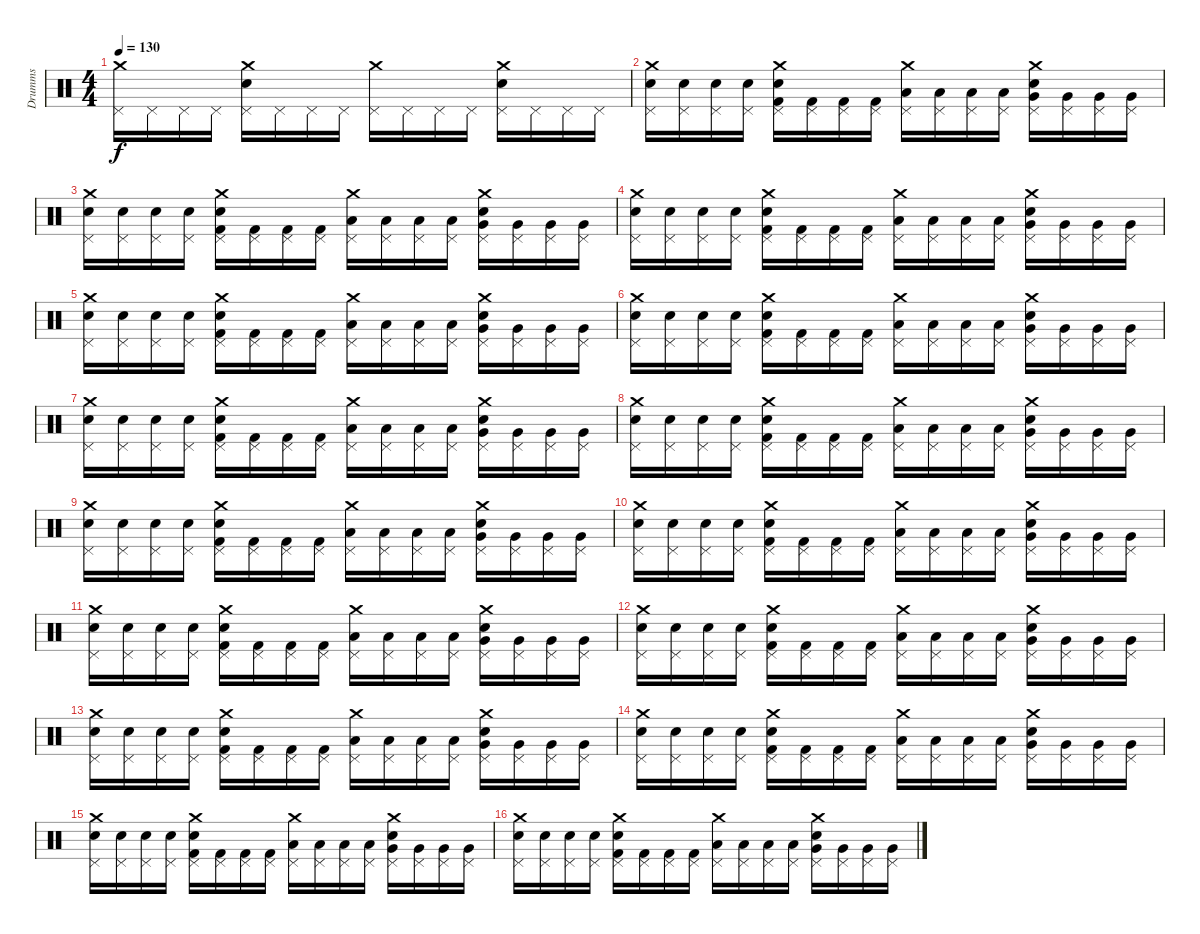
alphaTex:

\track ("Drumms" "Drumms") {instrument percussion}
\staff {score}
\articulation defaults
\ts (4 4)
\tempo 130
\clef neutral
\ks c
("Crash medium (hit)" "Pedal Hi-Hat (hit)").16{dy f} "Pedal Hi-Hat (hit)".16 "Pedal Hi-Hat (hit)".16 "Pedal Hi-Hat (hit)".16 ("Crash medium (hit)" "Electric Snare (hit)" "Pedal Hi-Hat (hit)").16 "Pedal Hi-Hat (hit)".16 "Pedal Hi-Hat (hit)".16 "Pedal Hi-Hat (hit)".16 ("Crash medium (hit)" "Pedal Hi-Hat (hit)").16 "Pedal Hi-Hat (hit)".16 "Pedal Hi-Hat (hit)".16 "Pedal Hi-Hat (hit)".16 ("Crash medium (hit)" "Electric Snare (hit)" "Pedal Hi-Hat (hit)").16 "Pedal Hi-Hat (hit)".16 "Pedal Hi-Hat (hit)".16 "Pedal Hi-Hat (hit)".16 |
("Crash medium (hit)" "Snare (hit) 2" "Pedal Hi-Hat (hit)").16{balance 0} ("Snare (hit) 2" "Pedal Hi-Hat (hit)").16 ("Snare (hit) 2" "Pedal Hi-Hat (hit)").16{balance 2} ("Snare (hit) 2" "Pedal Hi-Hat (hit)").16 ("Crash medium (hit)" "Electric Snare (hit)" "Kick (hit) 2" "Pedal Hi-Hat (hit)").16{balance 4} ("Kick (hit) 2" "Pedal Hi-Hat (hit)").16 ("Kick (hit) 2" "Pedal Hi-Hat (hit)").16{balance 6} ("Kick (hit) 2" "Pedal Hi-Hat (hit)").16 ("Crash medium (hit)" "Low Floor Tom (hit)" "Pedal Hi-Hat (hit)").16{balance 8} ("Low Floor Tom (hit)" "Pedal Hi-Hat (hit)").16 ("Low Floor Tom (hit)" "Pedal Hi-Hat (hit)").16{balance 10} ("Low Floor Tom (hit)" "Pedal Hi-Hat (hit)").16 ("Crash medium (hit)" "Electric Snare (hit)" "Very Low Tom (hit)" "Pedal Hi-Hat (hit)").16{balance 12} ("Very Low Tom (hit)" "Pedal Hi-Hat (hit)").16 ("Very Low Tom (hit)" "Pedal Hi-Hat (hit)").16{balance 14} ("Very Low Tom (hit)" "Pedal Hi-Hat (hit)").16 |
("Crash medium (hit)" "Snare (hit) 2" "Pedal Hi-Hat (hit)").16{balance 0} ("Snare (hit) 2" "Pedal Hi-Hat (hit)").16 ("Snare (hit) 2" "Pedal Hi-Hat (hit)").16{balance 2} ("Snare (hit) 2" "Pedal Hi-Hat (hit)").16 ("Crash medium (hit)" "Electric Snare (hit)" "Kick (hit) 2" "Pedal Hi-Hat (hit)").16{balance 4} ("Kick (hit) 2" "Pedal Hi-Hat (hit)").16 ("Kick (hit) 2" "Pedal Hi-Hat (hit)").16{balance 6} ("Kick (hit) 2" "Pedal Hi-Hat (hit)").16 ("Crash medium (hit)" "Low Floor Tom (hit)" "Pedal Hi-Hat (hit)").16{balance 8} ("Low Floor Tom (hit)" "Pedal Hi-Hat (hit)").16 ("Low Floor Tom (hit)" "Pedal Hi-Hat (hit)").16{balance 10} ("Low Floor Tom (hit)" "Pedal Hi-Hat (hit)").16 ("Crash medium (hit)" "Electric Snare (hit)" "Very Low Tom (hit)" "Pedal Hi-Hat (hit)").16{balance 12} ("Very Low Tom (hit)" "Pedal Hi-Hat (hit)").16 ("Very Low Tom (hit)" "Pedal Hi-Hat (hit)").16{balance 14} ("Very Low Tom (hit)" "Pedal Hi-Hat (hit)").16 |
("Crash medium (hit)" "Snare (hit) 2" "Pedal Hi-Hat (hit)").16{balance 0} ("Snare (hit) 2" "Pedal Hi-Hat (hit)").16 ("Snare (hit) 2" "Pedal Hi-Hat (hit)").16{balance 2} ("Snare (hit) 2" "Pedal Hi-Hat (hit)").16 ("Crash medium (hit)" "Electric Snare (hit)" "Kick (hit) 2" "Pedal Hi-Hat (hit)").16{balance 4} ("Kick (hit) 2" "Pedal Hi-Hat (hit)").16 ("Kick (hit) 2" "Pedal Hi-Hat (hit)").16{balance 6} ("Kick (hit) 2" "Pedal Hi-Hat (hit)").16 ("Crash medium (hit)" "Low Floor Tom (hit)" "Pedal Hi-Hat (hit)").16{balance 8} ("Low Floor Tom (hit)" "Pedal Hi-Hat (hit)").16 ("Low Floor Tom (hit)" "Pedal Hi-Hat (hit)").16{balance 10} ("Low Floor Tom (hit)" "Pedal Hi-Hat (hit)").16 ("Crash medium (hit)" "Electric Snare (hit)" "Very Low Tom (hit)" "Pedal Hi-Hat (hit)").16{balance 12} ("Very Low Tom (hit)" "Pedal Hi-Hat (hit)").16 ("Very Low Tom (hit)" "Pedal Hi-Hat (hit)").16{balance 14} ("Very Low Tom (hit)" "Pedal Hi-Hat (hit)").16 |
("Crash medium (hit)" "Snare (hit) 2" "Pedal Hi-Hat (hit)").16{balance 0} ("Snare (hit) 2" "Pedal Hi-Hat (hit)").16 ("Snare (hit) 2" "Pedal Hi-Hat (hit)").16{balance 2} ("Snare (hit) 2" "Pedal Hi-Hat (hit)").16 ("Crash medium (hit)" "Electric Snare (hit)" "Kick (hit) 2" "Pedal Hi-Hat (hit)").16{balance 4} ("Kick (hit) 2" "Pedal Hi-Hat (hit)").16 ("Kick (hit) 2" "Pedal Hi-Hat (hit)").16{balance 6} ("Kick (hit) 2" "Pedal Hi-Hat (hit)").16 ("Crash medium (hit)" "Low Floor Tom (hit)" "Pedal Hi-Hat (hit)").16{balance 8} ("Low Floor Tom (hit)" "Pedal Hi-Hat (hit)").16 ("Low Floor Tom (hit)" "Pedal Hi-Hat (hit)").16{balance 10} ("Low Floor Tom (hit)" "Pedal Hi-Hat (hit)").16 ("Crash medium (hit)" "Electric Snare (hit)" "Very Low Tom (hit)" "Pedal Hi-Hat (hit)").16{balance 12} ("Very Low Tom (hit)" "Pedal Hi-Hat (hit)").16 ("Very Low Tom (hit)" "Pedal Hi-Hat (hit)").16{balance 14} ("Very Low Tom (hit)" "Pedal Hi-Hat (hit)").16 |
("Crash medium (hit)" "Snare (hit) 2" "Pedal Hi-Hat (hit)").16{balance 0} ("Snare (hit) 2" "Pedal Hi-Hat (hit)").16 ("Snare (hit) 2" "Pedal Hi-Hat (hit)").16{balance 2} ("Snare (hit) 2" "Pedal Hi-Hat (hit)").16 ("Crash medium (hit)" "Electric Snare (hit)" "Kick (hit) 2" "Pedal Hi-Hat (hit)").16{balance 4} ("Kick (hit) 2" "Pedal Hi-Hat (hit)").16 ("Kick (hit) 2" "Pedal Hi-Hat (hit)").16{balance 6} ("Kick (hit) 2" "Pedal Hi-Hat (hit)").16 ("Crash medium (hit)" "Low Floor Tom (hit)" "Pedal Hi-Hat (hit)").16{balance 8} ("Low Floor Tom (hit)" "Pedal Hi-Hat (hit)").16 ("Low Floor Tom (hit)" "Pedal Hi-Hat (hit)").16{balance 10} ("Low Floor Tom (hit)" "Pedal Hi-Hat (hit)").16 ("Crash medium (hit)" "Electric Snare (hit)" "Very Low Tom (hit)" "Pedal Hi-Hat (hit)").16{balance 12} ("Very Low Tom (hit)" "Pedal Hi-Hat (hit)").16 ("Very Low Tom (hit)" "Pedal Hi-Hat (hit)").16{balance 14} ("Very Low Tom (hit)" "Pedal Hi-Hat (hit)").16 |
("Crash medium (hit)" "Snare (hit) 2" "Pedal Hi-Hat (hit)").16{balance 0} ("Snare (hit) 2" "Pedal Hi-Hat (hit)").16 ("Snare (hit) 2" "Pedal Hi-Hat (hit)").16{balance 2} ("Snare (hit) 2" "Pedal Hi-Hat (hit)").16 ("Crash medium (hit)" "Electric Snare (hit)" "Kick (hit) 2" "Pedal Hi-Hat (hit)").16{balance 4} ("Kick (hit) 2" "Pedal Hi-Hat (hit)").16 ("Kick (hit) 2" "Pedal Hi-Hat (hit)").16{balance 6} ("Kick (hit) 2" "Pedal Hi-Hat (hit)").16 ("Crash medium (hit)" "Low Floor Tom (hit)" "Pedal Hi-Hat (hit)").16{balance 8} ("Low Floor Tom (hit)" "Pedal Hi-Hat (hit)").16 ("Low Floor Tom (hit)" "Pedal Hi-Hat (hit)").16{balance 10} ("Low Floor Tom (hit)" "Pedal Hi-Hat (hit)").16 ("Crash medium (hit)" "Electric Snare (hit)" "Very Low Tom (hit)" "Pedal Hi-Hat (hit)").16{balance 12} ("Very Low Tom (hit)" "Pedal Hi-Hat (hit)").16 ("Very Low Tom (hit)" "Pedal Hi-Hat (hit)").16{balance 14} ("Very Low Tom (hit)" "Pedal Hi-Hat (hit)").16 |
("Crash medium (hit)" "Snare (hit) 2" "Pedal Hi-Hat (hit)").16{balance 0} ("Snare (hit) 2" "Pedal Hi-Hat (hit)").16 ("Snare (hit) 2" "Pedal Hi-Hat (hit)").16{balance 2} ("Snare (hit) 2" "Pedal Hi-Hat (hit)").16 ("Crash medium (hit)" "Electric Snare (hit)" "Kick (hit) 2" "Pedal Hi-Hat (hit)").16{balance 4} ("Kick (hit) 2" "Pedal Hi-Hat (hit)").16 ("Kick (hit) 2" "Pedal Hi-Hat (hit)").16{balance 6} ("Kick (hit) 2" "Pedal Hi-Hat (hit)").16 ("Crash medium (hit)" "Low Floor Tom (hit)" "Pedal Hi-Hat (hit)").16{balance 8} ("Low Floor Tom (hit)" "Pedal Hi-Hat (hit)").16 ("Low Floor Tom (hit)" "Pedal Hi-Hat (hit)").16{balance 10} ("Low Floor Tom (hit)" "Pedal Hi-Hat (hit)").16 ("Crash medium (hit)" "Electric Snare (hit)" "Very Low Tom (hit)" "Pedal Hi-Hat (hit)").16{balance 12} ("Very Low Tom (hit)" "Pedal Hi-Hat (hit)").16 ("Very Low Tom (hit)" "Pedal Hi-Hat (hit)").16{balance 14} ("Very Low Tom (hit)" "Pedal Hi-Hat (hit)").16 |
("Crash medium (hit)" "Snare (hit) 2" "Pedal Hi-Hat (hit)").16{balance 0} ("Snare (hit) 2" "Pedal Hi-Hat (hit)").16 ("Snare (hit) 2" "Pedal Hi-Hat (hit)").16{balance 2} ("Snare (hit) 2" "Pedal Hi-Hat (hit)").16 ("Crash medium (hit)" "Electric Snare (hit)" "Kick (hit) 2" "Pedal Hi-Hat (hit)").16{balance 4} ("Kick (hit) 2" "Pedal Hi-Hat (hit)").16 ("Kick (hit) 2" "Pedal Hi-Hat (hit)").16{balance 6} ("Kick (hit) 2" "Pedal Hi-Hat (hit)").16 ("Crash medium (hit)" "Low Floor Tom (hit)" "Pedal Hi-Hat (hit)").16{balance 8} ("Low Floor Tom (hit)" "Pedal Hi-Hat (hit)").16 ("Low Floor Tom (hit)" "Pedal Hi-Hat (hit)").16{balance 10} ("Low Floor Tom (hit)" "Pedal Hi-Hat (hit)").16 ("Crash medium (hit)" "Electric Snare (hit)" "Very Low Tom (hit)" "Pedal Hi-Hat (hit)").16{balance 12} ("Very Low Tom (hit)" "Pedal Hi-Hat (hit)").16 ("Very Low Tom (hit)" "Pedal Hi-Hat (hit)").16{balance 14} ("Very Low Tom (hit)" "Pedal Hi-Hat (hit)").16 |
("Crash medium (hit)" "Snare (hit) 2" "Pedal Hi-Hat (hit)").16{balance 0} ("Snare (hit) 2" "Pedal Hi-Hat (hit)").16 ("Snare (hit) 2" "Pedal Hi-Hat (hit)").16{balance 2} ("Snare (hit) 2" "Pedal Hi-Hat (hit)").16 ("Crash medium (hit)" "Electric Snare (hit)" "Kick (hit) 2" "Pedal Hi-Hat (hit)").16{balance 4} ("Kick (hit) 2" "Pedal Hi-Hat (hit)").16 ("Kick (hit) 2" "Pedal Hi-Hat (hit)").16{balance 6} ("Kick (hit) 2" "Pedal Hi-Hat (hit)").16 ("Crash medium (hit)" "Low Floor Tom (hit)" "Pedal Hi-Hat (hit)").16{balance 8} ("Low Floor Tom (hit)" "Pedal Hi-Hat (hit)").16 ("Low Floor Tom (hit)" "Pedal Hi-Hat (hit)").16{balance 10} ("Low Floor Tom (hit)" "Pedal Hi-Hat (hit)").16 ("Crash medium (hit)" "Electric Snare (hit)" "Very Low Tom (hit)" "Pedal Hi-Hat (hit)").16{balance 12} ("Very Low Tom (hit)" "Pedal Hi-Hat (hit)").16 ("Very Low Tom (hit)" "Pedal Hi-Hat (hit)").16{balance 14} ("Very Low Tom (hit)" "Pedal Hi-Hat (hit)").16 |
("Crash medium (hit)" "Snare (hit) 2" "Pedal Hi-Hat (hit)").16{balance 0} ("Snare (hit) 2" "Pedal Hi-Hat (hit)").16 ("Snare (hit) 2" "Pedal Hi-Hat (hit)").16{balance 2} ("Snare (hit) 2" "Pedal Hi-Hat (hit)").16 ("Crash medium (hit)" "Electric Snare (hit)" "Kick (hit) 2" "Pedal Hi-Hat (hit)").16{balance 4} ("Kick (hit) 2" "Pedal Hi-Hat (hit)").16 ("Kick (hit) 2" "Pedal Hi-Hat (hit)").16{balance 6} ("Kick (hit) 2" "Pedal Hi-Hat (hit)").16 ("Crash medium (hit)" "Low Floor Tom (hit)" "Pedal Hi-Hat (hit)").16{balance 8} ("Low Floor Tom (hit)" "Pedal Hi-Hat (hit)").16 ("Low Floor Tom (hit)" "Pedal Hi-Hat (hit)").16{balance 10} ("Low Floor Tom (hit)" "Pedal Hi-Hat (hit)").16 ("Crash medium (hit)" "Electric Snare (hit)" "Very Low Tom (hit)" "Pedal Hi-Hat (hit)").16{balance 12} ("Very Low Tom (hit)" "Pedal Hi-Hat (hit)").16 ("Very Low Tom (hit)" "Pedal Hi-Hat (hit)").16{balance 14} ("Very Low Tom (hit)" "Pedal Hi-Hat (hit)").16 |
("Crash medium (hit)" "Snare (hit) 2" "Pedal Hi-Hat (hit)").16{balance 0} ("Snare (hit) 2" "Pedal Hi-Hat (hit)").16 ("Snare (hit) 2" "Pedal Hi-Hat (hit)").16{balance 2} ("Snare (hit) 2" "Pedal Hi-Hat (hit)").16 ("Crash medium (hit)" "Electric Snare (hit)" "Kick (hit) 2" "Pedal Hi-Hat (hit)").16{balance 4} ("Kick (hit) 2" "Pedal Hi-Hat (hit)").16 ("Kick (hit) 2" "Pedal Hi-Hat (hit)").16{balance 6} ("Kick (hit) 2" "Pedal Hi-Hat (hit)").16 ("Crash medium (hit)" "Low Floor Tom (hit)" "Pedal Hi-Hat (hit)").16{balance 8} ("Low Floor Tom (hit)" "Pedal Hi-Hat (hit)").16 ("Low Floor Tom (hit)" "Pedal Hi-Hat (hit)").16{balance 10} ("Low Floor Tom (hit)" "Pedal Hi-Hat (hit)").16 ("Crash medium (hit)" "Electric Snare (hit)" "Very Low Tom (hit)" "Pedal Hi-Hat (hit)").16{balance 12} ("Very Low Tom (hit)" "Pedal Hi-Hat (hit)").16 ("Very Low Tom (hit)" "Pedal Hi-Hat (hit)").16{balance 14} ("Very Low Tom (hit)" "Pedal Hi-Hat (hit)").16 |
("Crash medium (hit)" "Snare (hit) 2" "Pedal Hi-Hat (hit)").16{balance 0} ("Snare (hit) 2" "Pedal Hi-Hat (hit)").16 ("Snare (hit) 2" "Pedal Hi-Hat (hit)").16{balance 2} ("Snare (hit) 2" "Pedal Hi-Hat (hit)").16 ("Crash medium (hit)" "Electric Snare (hit)" "Kick (hit) 2" "Pedal Hi-Hat (hit)").16{balance 4} ("Kick (hit) 2" "Pedal Hi-Hat (hit)").16 ("Kick (hit) 2" "Pedal Hi-Hat (hit)").16{balance 6} ("Kick (hit) 2" "Pedal Hi-Hat (hit)").16 ("Crash medium (hit)" "Low Floor Tom (hit)" "Pedal Hi-Hat (hit)").16{balance 8} ("Low Floor Tom (hit)" "Pedal Hi-Hat (hit)").16 ("Low Floor Tom (hit)" "Pedal Hi-Hat (hit)").16{balance 10} ("Low Floor Tom (hit)" "Pedal Hi-Hat (hit)").16 ("Crash medium (hit)" "Electric Snare (hit)" "Very Low Tom (hit)" "Pedal Hi-Hat (hit)").16{balance 12} ("Very Low Tom (hit)" "Pedal Hi-Hat (hit)").16 ("Very Low Tom (hit)" "Pedal Hi-Hat (hit)").16{balance 14} ("Very Low Tom (hit)" "Pedal Hi-Hat (hit)").16 |
("Crash medium (hit)" "Snare (hit) 2" "Pedal Hi-Hat (hit)").16{balance 0} ("Snare (hit) 2" "Pedal Hi-Hat (hit)").16 ("Snare (hit) 2" "Pedal Hi-Hat (hit)").16{balance 2} ("Snare (hit) 2" "Pedal Hi-Hat (hit)").16 ("Crash medium (hit)" "Electric Snare (hit)" "Kick (hit) 2" "Pedal Hi-Hat (hit)").16{balance 4} ("Kick (hit) 2" "Pedal Hi-Hat (hit)").16 ("Kick (hit) 2" "Pedal Hi-Hat (hit)").16{balance 6} ("Kick (hit) 2" "Pedal Hi-Hat (hit)").16 ("Crash medium (hit)" "Low Floor Tom (hit)" "Pedal Hi-Hat (hit)").16{balance 8} ("Low Floor Tom (hit)" "Pedal Hi-Hat (hit)").16 ("Low Floor Tom (hit)" "Pedal Hi-Hat (hit)").16{balance 10} ("Low Floor Tom (hit)" "Pedal Hi-Hat (hit)").16 ("Crash medium (hit)" "Electric Snare (hit)" "Very Low Tom (hit)" "Pedal Hi-Hat (hit)").16{balance 12} ("Very Low Tom (hit)" "Pedal Hi-Hat (hit)").16 ("Very Low Tom (hit)" "Pedal Hi-Hat (hit)").16{balance 14} ("Very Low Tom (hit)" "Pedal Hi-Hat (hit)").16 |
("Crash medium (hit)" "Snare (hit) 2" "Pedal Hi-Hat (hit)").16{volume 9 balance 0} ("Snare (hit) 2" "Pedal Hi-Hat (hit)").16 ("Snare (hit) 2" "Pedal Hi-Hat (hit)").16{balance 2} ("Snare (hit) 2" "Pedal Hi-Hat (hit)").16 ("Crash medium (hit)" "Electric Snare (hit)" "Kick (hit) 2" "Pedal Hi-Hat (hit)").16{volume 8 balance 4} ("Kick (hit) 2" "Pedal Hi-Hat (hit)").16 ("Kick (hit) 2" "Pedal Hi-Hat (hit)").16{balance 6} ("Kick (hit) 2" "Pedal Hi-Hat (hit)").16 ("Crash medium (hit)" "Low Floor Tom (hit)" "Pedal Hi-Hat (hit)").16{volume 7 balance 8} ("Low Floor Tom (hit)" "Pedal Hi-Hat (hit)").16 ("Low Floor Tom (hit)" "Pedal Hi-Hat (hit)").16{balance 10} ("Low Floor Tom (hit)" "Pedal Hi-Hat (hit)").16 ("Crash medium (hit)" "Electric Snare (hit)" "Very Low Tom (hit)" "Pedal Hi-Hat (hit)").16{volume 6 balance 12} ("Very Low Tom (hit)" "Pedal Hi-Hat (hit)").16 ("Very Low Tom (hit)" "Pedal Hi-Hat (hit)").16{balance 14} ("Very Low Tom (hit)" "Pedal Hi-Hat (hit)").16 |
("Crash medium (hit)" "Snare (hit) 2" "Pedal Hi-Hat (hit)").16{volume 5 balance 0} ("Snare (hit) 2" "Pedal Hi-Hat (hit)").16 ("Snare (hit) 2" "Pedal Hi-Hat (hit)").16{balance 2} ("Snare (hit) 2" "Pedal Hi-Hat (hit)").16 ("Crash medium (hit)" "Electric Snare (hit)" "Kick (hit) 2" "Pedal Hi-Hat (hit)").16{volume 4 balance 4} ("Kick (hit) 2" "Pedal Hi-Hat (hit)").16 ("Kick (hit) 2" "Pedal Hi-Hat (hit)").16{balance 6} ("Kick (hit) 2" "Pedal Hi-Hat (hit)").16 ("Crash medium (hit)" "Low Floor Tom (hit)" "Pedal Hi-Hat (hit)").16{volume 3 balance 8} ("Low Floor Tom (hit)" "Pedal Hi-Hat (hit)").16 ("Low Floor Tom (hit)" "Pedal Hi-Hat (hit)").16{balance 10} ("Low Floor Tom (hit)" "Pedal Hi-Hat (hit)").16 ("Crash medium (hit)" "Electric Snare (hit)" "Very Low Tom (hit)" "Pedal Hi-Hat (hit)").16{volume 2 balance 12} ("Very Low Tom (hit)" "Pedal Hi-Hat (hit)").16 ("Very Low Tom (hit)" "Pedal Hi-Hat (hit)").16{balance 14} ("Very Low Tom (hit)" "Pedal Hi-Hat (hit)").16
